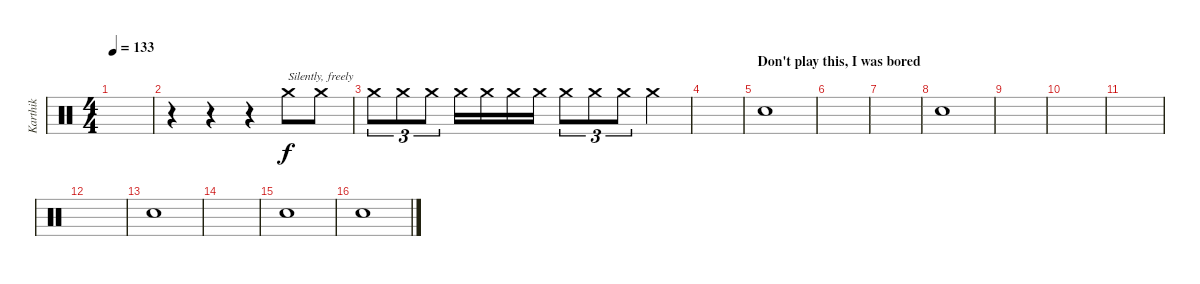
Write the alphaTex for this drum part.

\track ("Karthik" "Karthik") {instrument percussion}
\staff {score}
\articulation defaults
\ts (4 4)
\tempo 133
\clef neutral
\ks c
|
r.4{volume 4} r.4 r.4 "Crash medium (hit)".8{txt "Silently, freely" volume 8} "Crash medium (hit)".8 |
"Crash medium (hit)".8{tu (3 2)} "Crash medium (hit)".8{tu (3 2)} "Crash medium (hit)".8{tu (3 2)} "Crash medium (hit)".16 "Crash medium (hit)".16 "Crash medium (hit)".16 "Crash medium (hit)".16 "Crash medium (hit)".8{tu (3 2) volume 0} "Crash medium (hit)".8{tu (3 2)} "Crash medium (hit)".8{tu (3 2)} "Crash medium (hit)".4 |
|
\section ("" "Don't play this, I was bored")
"Snare (hit)".1{volume 13} |
|
|
"Snare (hit)".1 |
|
|
|
|
"Snare (hit)".1 |
|
"Snare (hit)".1 |
"Snare (hit)".1
